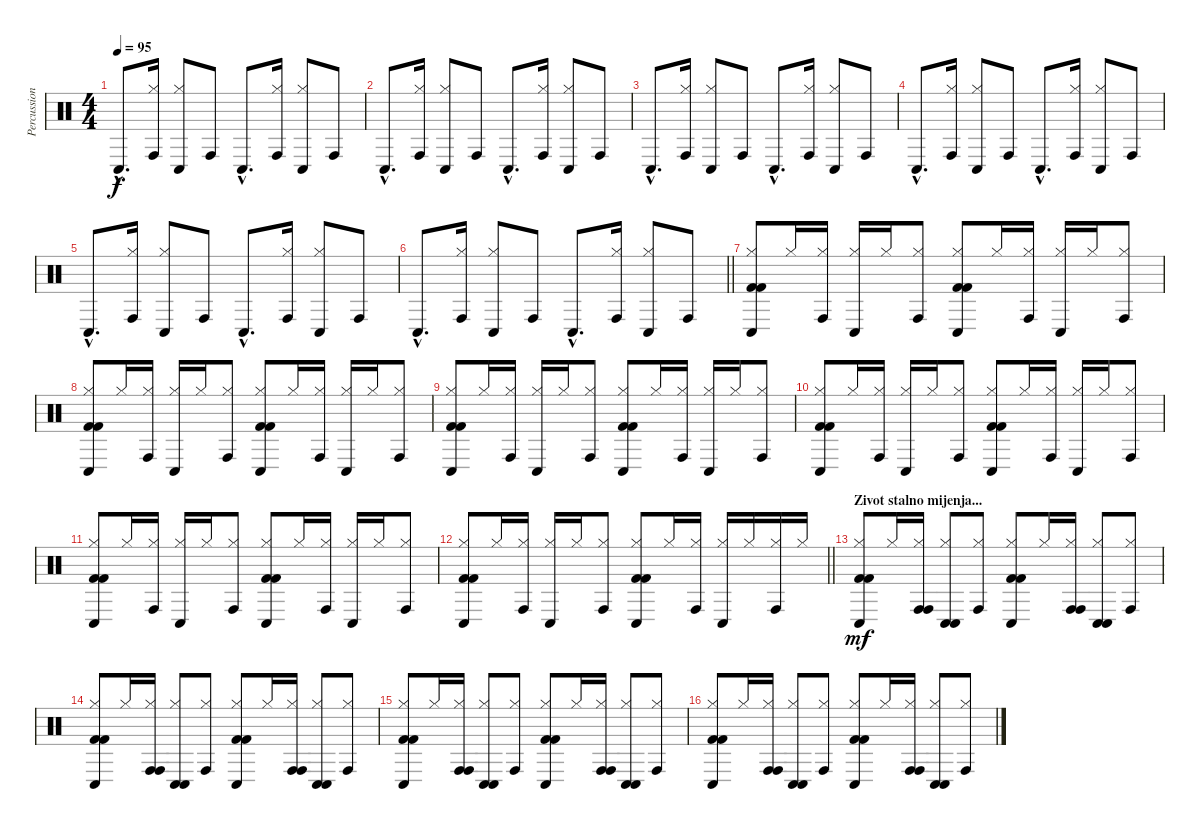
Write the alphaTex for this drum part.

\track ("Percussion" "Percussion") {instrument percussion}
\staff {score}
\articulation defaults
\ts (4 4)
\tempo 95
\clef neutral
\ks c "Conga low (hit)"{hac}.8{d dy f}
("Hi-Hat (closed)" "Conga high (hit)").16 ("Hi-Hat (closed)" "Conga low (hit)").8 "Conga high (hit)".8 "Conga low (hit)"{hac}.8{d} ("Hi-Hat (closed)" "Conga high (hit)").16 ("Hi-Hat (closed)" "Conga low (hit)").8 "Conga high (hit)".8 |
"Conga low (hit)"{hac}.8{d} ("Hi-Hat (closed)" "Conga high (hit)").16 ("Hi-Hat (closed)" "Conga low (hit)").8 "Conga high (hit)".8 "Conga low (hit)"{hac}.8{d} ("Hi-Hat (closed)" "Conga high (hit)").16 ("Hi-Hat (closed)" "Conga low (hit)").8 "Conga high (hit)".8 |
"Conga low (hit)"{hac}.8{d} ("Hi-Hat (closed)" "Conga high (hit)").16 ("Hi-Hat (closed)" "Conga low (hit)").8 "Conga high (hit)".8 "Conga low (hit)"{hac}.8{d} ("Hi-Hat (closed)" "Conga high (hit)").16 ("Hi-Hat (closed)" "Conga low (hit)").8 "Conga high (hit)".8 |
"Conga low (hit)"{hac}.8{d} ("Hi-Hat (closed)" "Conga high (hit)").16 ("Hi-Hat (closed)" "Conga low (hit)").8 "Conga high (hit)".8 "Conga low (hit)"{hac}.8{d} ("Hi-Hat (closed)" "Conga high (hit)").16 ("Hi-Hat (closed)" "Conga low (hit)").8 "Conga high (hit)".8 |
"Conga low (hit)"{hac}.8{d} ("Hi-Hat (closed)" "Conga high (hit)").16 ("Hi-Hat (closed)" "Conga low (hit)").8 "Conga high (hit)".8 "Conga low (hit)"{hac}.8{d} ("Hi-Hat (closed)" "Conga high (hit)").16 ("Hi-Hat (closed)" "Conga low (hit)").8 "Conga high (hit)".8 |
\barLineRight lightlight "Conga low (hit)"{hac}.8{d}
("Hi-Hat (closed)" "Conga high (hit)").16 ("Hi-Hat (closed)" "Conga low (hit)").8 "Conga high (hit)".8 "Conga low (hit)"{hac}.8{d} ("Hi-Hat (closed)" "Conga high (hit)").16 ("Hi-Hat (closed)" "Conga low (hit)").8 "Conga high (hit)".8 |
("Hi-Hat (closed)" "Conga low (hit)" "Kick (hit) 2" "Kick (hit) 2").8 "Hi-Hat (closed)".16 ("Hi-Hat (closed)" "Conga high (hit)").16 ("Hi-Hat (closed)" "Conga low (hit)").16 "Hi-Hat (closed)".16 ("Hi-Hat (closed)" "Conga high (hit)").8 ("Hi-Hat (closed)" "Conga low (hit)" "Kick (hit) 2" "Kick (hit) 2").8 "Hi-Hat (closed)".16 ("Hi-Hat (closed)" "Conga high (hit)").16 ("Hi-Hat (closed)" "Conga low (hit)").16 "Hi-Hat (closed)".16 ("Hi-Hat (closed)" "Conga high (hit)").8 |
("Hi-Hat (closed)" "Conga low (hit)" "Kick (hit) 2" "Kick (hit) 2").8 "Hi-Hat (closed)".16 ("Hi-Hat (closed)" "Conga high (hit)").16 ("Hi-Hat (closed)" "Conga low (hit)").16 "Hi-Hat (closed)".16 ("Hi-Hat (closed)" "Conga high (hit)").8 ("Hi-Hat (closed)" "Conga low (hit)" "Kick (hit) 2" "Kick (hit) 2").8 "Hi-Hat (closed)".16 ("Hi-Hat (closed)" "Conga high (hit)").16 ("Hi-Hat (closed)" "Conga low (hit)").16 "Hi-Hat (closed)".16 ("Hi-Hat (closed)" "Conga high (hit)").8 |
("Hi-Hat (closed)" "Conga low (hit)" "Kick (hit) 2" "Kick (hit) 2").8 "Hi-Hat (closed)".16 ("Hi-Hat (closed)" "Conga high (hit)").16 ("Hi-Hat (closed)" "Conga low (hit)").16 "Hi-Hat (closed)".16 ("Hi-Hat (closed)" "Conga high (hit)").8 ("Hi-Hat (closed)" "Conga low (hit)" "Kick (hit) 2" "Kick (hit) 2").8 "Hi-Hat (closed)".16 ("Hi-Hat (closed)" "Conga high (hit)").16 ("Hi-Hat (closed)" "Conga low (hit)").16 "Hi-Hat (closed)".16 ("Hi-Hat (closed)" "Conga high (hit)").8 |
("Hi-Hat (closed)" "Conga low (hit)" "Kick (hit) 2" "Kick (hit) 2").8 "Hi-Hat (closed)".16 ("Hi-Hat (closed)" "Conga high (hit)").16 ("Hi-Hat (closed)" "Conga low (hit)").16 "Hi-Hat (closed)".16 ("Hi-Hat (closed)" "Conga high (hit)").8 ("Hi-Hat (closed)" "Conga low (hit)" "Kick (hit) 2" "Kick (hit) 2").8 "Hi-Hat (closed)".16 ("Hi-Hat (closed)" "Conga high (hit)").16 ("Hi-Hat (closed)" "Conga low (hit)").16 "Hi-Hat (closed)".16 ("Hi-Hat (closed)" "Conga high (hit)").8 |
("Hi-Hat (closed)" "Conga low (hit)" "Kick (hit) 2" "Kick (hit) 2").8 "Hi-Hat (closed)".16 ("Hi-Hat (closed)" "Conga high (hit)").16 ("Hi-Hat (closed)" "Conga low (hit)").16 "Hi-Hat (closed)".16 ("Hi-Hat (closed)" "Conga high (hit)").8 ("Hi-Hat (closed)" "Conga low (hit)" "Kick (hit) 2" "Kick (hit) 2").8 "Hi-Hat (closed)".16 ("Hi-Hat (closed)" "Conga high (hit)").16 ("Hi-Hat (closed)" "Conga low (hit)").16 "Hi-Hat (closed)".16 ("Hi-Hat (closed)" "Conga high (hit)").8 |
\barLineRight lightlight
("Hi-Hat (closed)" "Conga low (hit)" "Kick (hit) 2" "Kick (hit) 2").8 "Hi-Hat (closed)".16 ("Hi-Hat (closed)" "Conga high (hit)").16 ("Hi-Hat (closed)" "Conga low (hit)").16 "Hi-Hat (closed)".16 ("Hi-Hat (closed)" "Conga high (hit)").8 ("Hi-Hat (closed)" "Conga low (hit)" "Kick (hit) 2" "Kick (hit) 2").8 "Hi-Hat (closed)".16 ("Hi-Hat (closed)" "Conga high (hit)").16 ("Hi-Hat (closed)" "Conga low (hit)").16 "Hi-Hat (closed)".16 ("Hi-Hat (closed)" "Conga high (hit)").16 "Hi-Hat (closed)".16 |
\section ("" "Zivot stalno mijenja...")
("Hi-Hat (closed)" "Conga low (hit)" "Kick (hit) 2" "Kick (hit) 2").8{dy mf} "Hi-Hat (closed)".16 ("Hi-Hat (closed)" "Conga high (hit)" "Conga high (hit)").16 ("Hi-Hat (closed)" "Conga low (hit)" "Conga low (hit)").8 ("Hi-Hat (closed)" "Conga high (hit)").8 ("Hi-Hat (closed)" "Conga low (hit)" "Kick (hit) 2" "Kick (hit) 2").8 "Hi-Hat (closed)".16 ("Hi-Hat (closed)" "Conga high (hit)" "Conga high (hit)").16 ("Hi-Hat (closed)" "Conga low (hit)" "Conga low (hit)").8 ("Hi-Hat (closed)" "Conga high (hit)").8 |
("Hi-Hat (closed)" "Conga low (hit)" "Kick (hit) 2" "Kick (hit) 2").8 "Hi-Hat (closed)".16 ("Hi-Hat (closed)" "Conga high (hit)" "Conga high (hit)").16 ("Hi-Hat (closed)" "Conga low (hit)" "Conga low (hit)").8 ("Hi-Hat (closed)" "Conga high (hit)").8 ("Hi-Hat (closed)" "Conga low (hit)" "Kick (hit) 2" "Kick (hit) 2").8 "Hi-Hat (closed)".16 ("Hi-Hat (closed)" "Conga high (hit)" "Conga high (hit)").16 ("Hi-Hat (closed)" "Conga low (hit)" "Conga low (hit)").8 ("Hi-Hat (closed)" "Conga high (hit)").8 |
("Hi-Hat (closed)" "Conga low (hit)" "Kick (hit) 2" "Kick (hit) 2").8 "Hi-Hat (closed)".16 ("Hi-Hat (closed)" "Conga high (hit)" "Conga high (hit)").16 ("Hi-Hat (closed)" "Conga low (hit)" "Conga low (hit)").8 ("Hi-Hat (closed)" "Conga high (hit)").8 ("Hi-Hat (closed)" "Conga low (hit)" "Kick (hit) 2" "Kick (hit) 2").8 "Hi-Hat (closed)".16 ("Hi-Hat (closed)" "Conga high (hit)" "Conga high (hit)").16 ("Hi-Hat (closed)" "Conga low (hit)" "Conga low (hit)").8 ("Hi-Hat (closed)" "Conga high (hit)").8 |
("Hi-Hat (closed)" "Conga low (hit)" "Kick (hit) 2" "Kick (hit) 2").8 "Hi-Hat (closed)".16 ("Hi-Hat (closed)" "Conga high (hit)" "Conga high (hit)").16 ("Hi-Hat (closed)" "Conga low (hit)" "Conga low (hit)").8 ("Hi-Hat (closed)" "Conga high (hit)").8 ("Hi-Hat (closed)" "Conga low (hit)" "Kick (hit) 2" "Kick (hit) 2").8 "Hi-Hat (closed)".16 ("Hi-Hat (closed)" "Conga high (hit)" "Conga high (hit)").16 ("Hi-Hat (closed)" "Conga low (hit)" "Conga low (hit)").8 ("Hi-Hat (closed)" "Conga high (hit)").8
